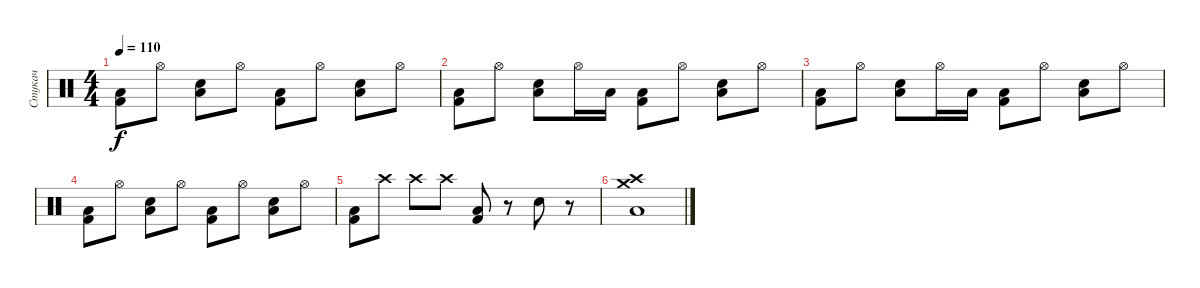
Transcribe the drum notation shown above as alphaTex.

\track ("Стукач" "Стукач") {instrument percussion}
\staff {score}
\articulation defaults
\ts (4 4)
\tempo 110
\clef neutral
\ks c
("Kick (hit) 2" "Low Floor Tom (hit)").8{dy f} "Hi-Hat (open)".8 ("Electric Snare (hit)" "Low Floor Tom (hit)").8 "Hi-Hat (open)".8 ("Kick (hit) 2" "Low Floor Tom (hit)").8 "Hi-Hat (open)".8 ("Electric Snare (hit)" "Low Floor Tom (hit)").8 "Hi-Hat (open)".8 |
("Kick (hit) 2" "Low Floor Tom (hit)").8 "Hi-Hat (open)".8 ("Electric Snare (hit)" "Low Floor Tom (hit)").8 "Hi-Hat (open)".16 "Low Floor Tom (hit)".16 ("Kick (hit) 2" "Low Floor Tom (hit)").8 "Hi-Hat (open)".8 ("Electric Snare (hit)" "Low Floor Tom (hit)").8 "Hi-Hat (open)".8 |
("Kick (hit) 2" "Low Floor Tom (hit)").8 "Hi-Hat (open)".8 ("Electric Snare (hit)" "Low Floor Tom (hit)").8 "Hi-Hat (open)".16 "Low Floor Tom (hit)".16 ("Kick (hit) 2" "Low Floor Tom (hit)").8 "Hi-Hat (open)".8 ("Electric Snare (hit)" "Low Floor Tom (hit)").8 "Hi-Hat (open)".8 |
("Kick (hit) 2" "Low Floor Tom (hit)").8 "Hi-Hat (open)".8 ("Electric Snare (hit)" "Low Floor Tom (hit)").8 "Hi-Hat (open)".8 ("Kick (hit) 2" "Low Floor Tom (hit)").8 "Hi-Hat (open)".8 ("Electric Snare (hit)" "Low Floor Tom (hit)").8 "Hi-Hat (open)".8 |
("Kick (hit) 2" "Low Floor Tom (hit)").8 "Crash high (hit)".8 "Crash high (hit)".8 "Crash high (hit)".8 ("Kick (hit) 2" "Low Floor Tom (hit)").8 r.8 "Electric Snare (hit)".8 r.8 |
("Crash medium (hit)" "Crash high (hit)" "Low Floor Tom (hit)").1
